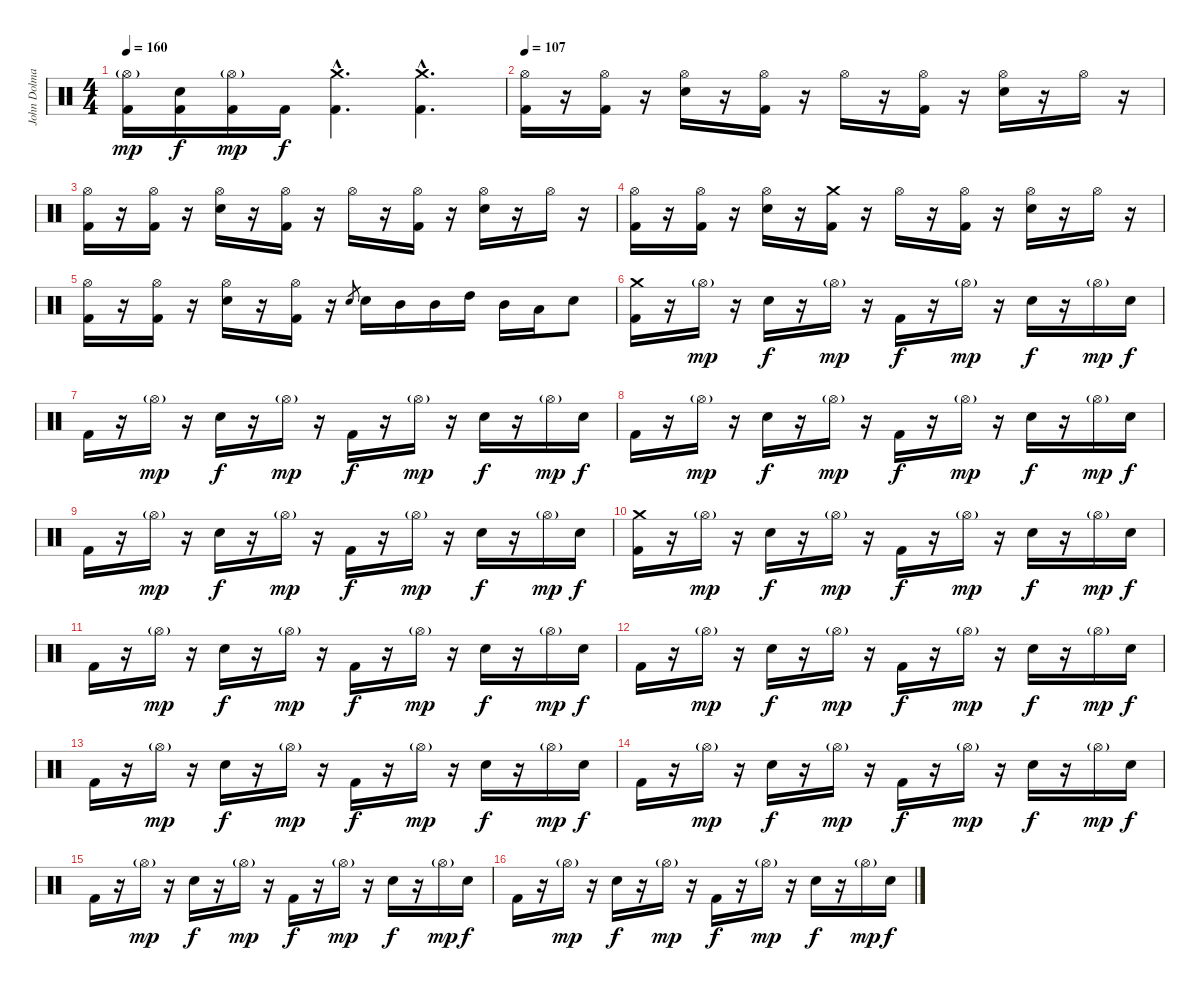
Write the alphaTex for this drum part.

\track ("John Dolmayan(Drums)" "John Dolma") {instrument percussion}
\staff {score}
\articulation defaults
\ts (4 4)
\tempo 160
\clef neutral
\ks c
("Hi-Hat (open)"{g} "Kick (hit) 2").16{dy mp} ("Electric Snare (hit)" "Kick (hit) 2").16{dy f} ("Hi-Hat (open)"{g} "Kick (hit) 2").16{dy mp} "Kick (hit) 2".16{dy f} ("Crash medium (hit)"{hac} "Kick (hit) 2"{hac}).4{d} ("Crash medium (hit)"{hac} "Kick (hit) 2"{hac}).4{d} |
\tempo 107
("Hi-Hat (open)" "Kick (hit) 2").16 r.16 ("Hi-Hat (open)" "Kick (hit) 2").16 r.16 ("Hi-Hat (open)" "Electric Snare (hit)").16 r.16 ("Hi-Hat (open)" "Kick (hit) 2").16 r.16 "Hi-Hat (open)".16 r.16 ("Hi-Hat (open)" "Kick (hit) 2").16 r.16 ("Hi-Hat (open)" "Electric Snare (hit)").16 r.16 "Hi-Hat (open)".16 r.16 |
("Hi-Hat (open)" "Kick (hit) 2").16 r.16 ("Hi-Hat (open)" "Kick (hit) 2").16 r.16 ("Hi-Hat (open)" "Electric Snare (hit)").16 r.16 ("Hi-Hat (open)" "Kick (hit) 2").16 r.16 "Hi-Hat (open)".16 r.16 ("Hi-Hat (open)" "Kick (hit) 2").16 r.16 ("Hi-Hat (open)" "Electric Snare (hit)").16 r.16 "Hi-Hat (open)".16 r.16 |
("Hi-Hat (open)" "Kick (hit) 2").16 r.16 ("Hi-Hat (open)" "Kick (hit) 2").16 r.16 ("Hi-Hat (open)" "Electric Snare (hit)").16 r.16 ("Crash medium (hit)" "Kick (hit) 2").16 r.16 "Hi-Hat (open)".16 r.16 ("Hi-Hat (open)" "Kick (hit) 2").16 r.16 ("Hi-Hat (open)" "Electric Snare (hit)").16 r.16 "Hi-Hat (open)".16 r.16 |
("Hi-Hat (open)" "Kick (hit) 2").16 r.16 ("Hi-Hat (open)" "Kick (hit) 2").16 r.16 ("Hi-Hat (open)" "Electric Snare (hit)").16 r.16 ("Hi-Hat (open)" "Kick (hit) 2").16 r.16 "Electric Snare (hit)".8{gr} "Electric Snare (hit)".16 "Mid Tom (hit)".16 "Mid Tom (hit)".16 "High Tom (hit)".16 "Mid Tom (hit)".16 "Low Tom (hit)".16 "Electric Snare (hit)".8 |
("Crash medium (hit)" "Kick (hit) 2").16 r.16 "Hi-Hat (open)"{g}.16{dy mp} r.16 "Electric Snare (hit)".16{dy f} r.16 "Hi-Hat (open)"{g}.16{dy mp} r.16 "Kick (hit) 2".16{dy f} r.16 "Hi-Hat (open)"{g}.16{dy mp} r.16 "Electric Snare (hit)".16{dy f} r.16 "Hi-Hat (open)"{g}.16{dy mp} "Electric Snare (hit)".16{dy f} |
"Kick (hit) 2".16 r.16 "Hi-Hat (open)"{g}.16{dy mp} r.16 "Electric Snare (hit)".16{dy f} r.16 "Hi-Hat (open)"{g}.16{dy mp} r.16 "Kick (hit) 2".16{dy f} r.16 "Hi-Hat (open)"{g}.16{dy mp} r.16 "Electric Snare (hit)".16{dy f} r.16 "Hi-Hat (open)"{g}.16{dy mp} "Electric Snare (hit)".16{dy f} |
"Kick (hit) 2".16 r.16 "Hi-Hat (open)"{g}.16{dy mp} r.16 "Electric Snare (hit)".16{dy f} r.16 "Hi-Hat (open)"{g}.16{dy mp} r.16 "Kick (hit) 2".16{dy f} r.16 "Hi-Hat (open)"{g}.16{dy mp} r.16 "Electric Snare (hit)".16{dy f} r.16 "Hi-Hat (open)"{g}.16{dy mp} "Electric Snare (hit)".16{dy f} |
"Kick (hit) 2".16 r.16 "Hi-Hat (open)"{g}.16{dy mp} r.16 "Electric Snare (hit)".16{dy f} r.16 "Hi-Hat (open)"{g}.16{dy mp} r.16 "Kick (hit) 2".16{dy f} r.16 "Hi-Hat (open)"{g}.16{dy mp} r.16 "Electric Snare (hit)".16{dy f} r.16 "Hi-Hat (open)"{g}.16{dy mp} "Electric Snare (hit)".16{dy f} |
("Crash medium (hit)" "Kick (hit) 2").16 r.16 "Hi-Hat (open)"{g}.16{dy mp} r.16 "Electric Snare (hit)".16{dy f} r.16 "Hi-Hat (open)"{g}.16{dy mp} r.16 "Kick (hit) 2".16{dy f} r.16 "Hi-Hat (open)"{g}.16{dy mp} r.16 "Electric Snare (hit)".16{dy f} r.16 "Hi-Hat (open)"{g}.16{dy mp} "Electric Snare (hit)".16{dy f} |
"Kick (hit) 2".16 r.16 "Hi-Hat (open)"{g}.16{dy mp} r.16 "Electric Snare (hit)".16{dy f} r.16 "Hi-Hat (open)"{g}.16{dy mp} r.16 "Kick (hit) 2".16{dy f} r.16 "Hi-Hat (open)"{g}.16{dy mp} r.16 "Electric Snare (hit)".16{dy f} r.16 "Hi-Hat (open)"{g}.16{dy mp} "Electric Snare (hit)".16{dy f} |
"Kick (hit) 2".16 r.16 "Hi-Hat (open)"{g}.16{dy mp} r.16 "Electric Snare (hit)".16{dy f} r.16 "Hi-Hat (open)"{g}.16{dy mp} r.16 "Kick (hit) 2".16{dy f} r.16 "Hi-Hat (open)"{g}.16{dy mp} r.16 "Electric Snare (hit)".16{dy f} r.16 "Hi-Hat (open)"{g}.16{dy mp} "Electric Snare (hit)".16{dy f} |
"Kick (hit) 2".16 r.16 "Hi-Hat (open)"{g}.16{dy mp} r.16 "Electric Snare (hit)".16{dy f} r.16 "Hi-Hat (open)"{g}.16{dy mp} r.16 "Kick (hit) 2".16{dy f} r.16 "Hi-Hat (open)"{g}.16{dy mp} r.16 "Electric Snare (hit)".16{dy f} r.16 "Hi-Hat (open)"{g}.16{dy mp} "Electric Snare (hit)".16{dy f} |
"Kick (hit) 2".16 r.16 "Hi-Hat (open)"{g}.16{dy mp} r.16 "Electric Snare (hit)".16{dy f} r.16 "Hi-Hat (open)"{g}.16{dy mp} r.16 "Kick (hit) 2".16{dy f} r.16 "Hi-Hat (open)"{g}.16{dy mp} r.16 "Electric Snare (hit)".16{dy f} r.16 "Hi-Hat (open)"{g}.16{dy mp} "Electric Snare (hit)".16{dy f} |
"Kick (hit) 2".16 r.16 "Hi-Hat (open)"{g}.16{dy mp} r.16 "Electric Snare (hit)".16{dy f} r.16 "Hi-Hat (open)"{g}.16{dy mp} r.16 "Kick (hit) 2".16{dy f} r.16 "Hi-Hat (open)"{g}.16{dy mp} r.16 "Electric Snare (hit)".16{dy f} r.16 "Hi-Hat (open)"{g}.16{dy mp} "Electric Snare (hit)".16{dy f} |
"Kick (hit) 2".16 r.16 "Hi-Hat (open)"{g}.16{dy mp} r.16 "Electric Snare (hit)".16{dy f} r.16 "Hi-Hat (open)"{g}.16{dy mp} r.16 "Kick (hit) 2".16{dy f} r.16 "Hi-Hat (open)"{g}.16{dy mp} r.16 "Electric Snare (hit)".16{dy f} r.16 "Hi-Hat (open)"{g}.16{dy mp} "Electric Snare (hit)".16{dy f}
